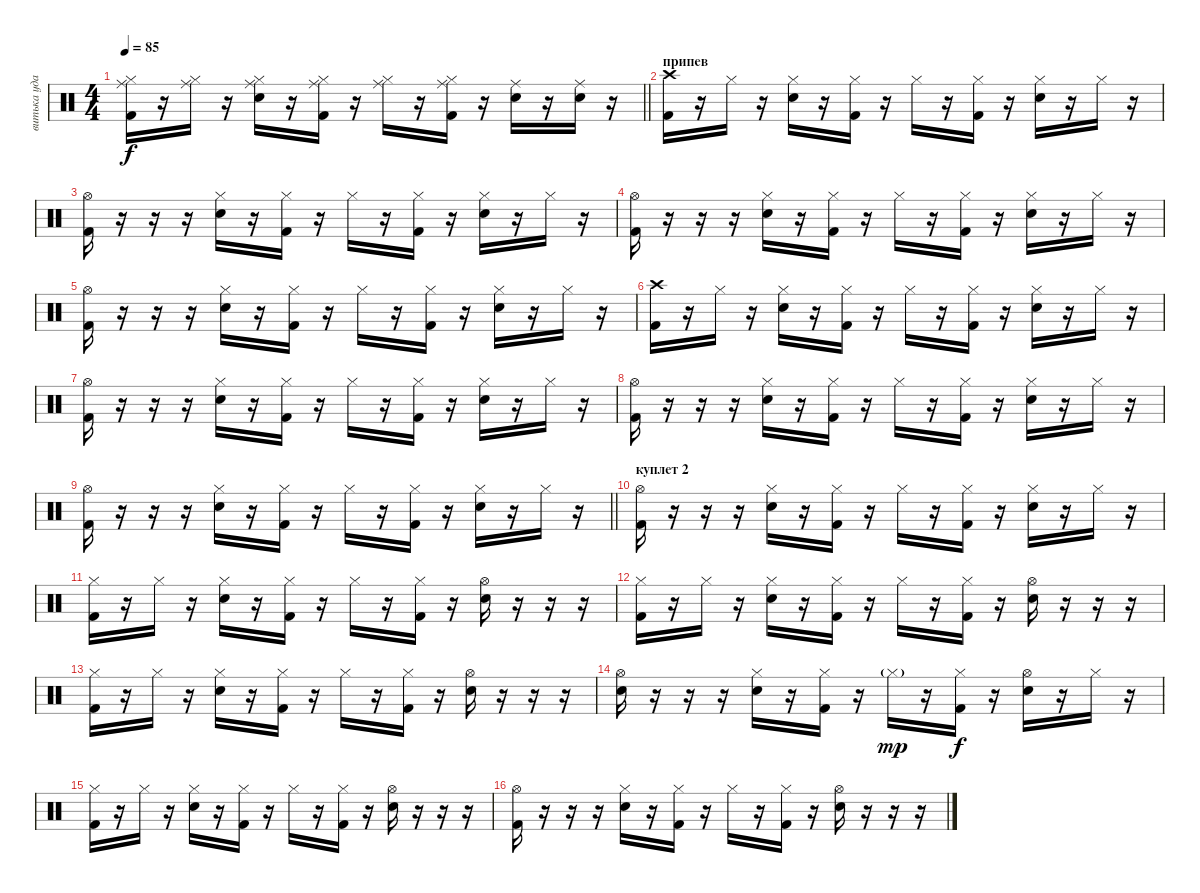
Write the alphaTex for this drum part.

\track ("витька ударные" "витька уда") {instrument percussion}
\staff {score}
\articulation defaults
\ts (4 4)
\tempo 85
\clef neutral
\barLineRight lightlight
\ks c
("Kick (hit) 2" "Ride (middle)" "Hi-Hat (closed)").16{dy f} r.16 ("Ride (middle)" "Hi-Hat (closed)").16 r.16 ("Snare (hit) 2" "Ride (middle)" "Hi-Hat (closed)").16 r.16 ("Kick (hit) 2" "Ride (middle)" "Hi-Hat (closed)").16 r.16 ("Ride (middle)" "Hi-Hat (closed)").16 r.16 ("Kick (hit) 2" "Ride (middle)" "Hi-Hat (closed)").16 r.16 ("Snare (hit) 2" "Ride (middle)").16 r.16 ("Snare (hit) 2" "Ride (middle)").16 r.16 |
\section ("" "припев")
("Kick (hit) 2" "Crash high (hit)").16 r.16 "Hi-Hat (closed)".16 r.16 ("Snare (hit) 2" "Hi-Hat (closed)").16 r.16 ("Kick (hit) 2" "Hi-Hat (closed)").16 r.16 "Hi-Hat (closed)".16 r.16 ("Kick (hit) 2" "Hi-Hat (closed)").16 r.16 ("Snare (hit) 2" "Hi-Hat (closed)").16 r.16 "Hi-Hat (closed)".16 r.16 |
("Kick (hit) 2" "Hi-Hat (open)").16 r.16 r.16 r.16 ("Snare (hit) 2" "Hi-Hat (closed)").16 r.16 ("Kick (hit) 2" "Hi-Hat (closed)").16 r.16 "Hi-Hat (closed)".16 r.16 ("Kick (hit) 2" "Hi-Hat (closed)").16 r.16 ("Snare (hit) 2" "Hi-Hat (closed)").16 r.16 "Hi-Hat (closed)".16 r.16 |
("Kick (hit) 2" "Hi-Hat (open)").16 r.16 r.16 r.16 ("Snare (hit) 2" "Hi-Hat (closed)").16 r.16 ("Kick (hit) 2" "Hi-Hat (closed)").16 r.16 "Hi-Hat (closed)".16 r.16 ("Kick (hit) 2" "Hi-Hat (closed)").16 r.16 ("Snare (hit) 2" "Hi-Hat (closed)").16 r.16 "Hi-Hat (closed)".16 r.16 |
("Kick (hit) 2" "Hi-Hat (open)").16 r.16 r.16 r.16 ("Snare (hit) 2" "Hi-Hat (closed)").16 r.16 ("Kick (hit) 2" "Hi-Hat (closed)").16 r.16 "Hi-Hat (closed)".16 r.16 ("Kick (hit) 2" "Hi-Hat (closed)").16 r.16 ("Snare (hit) 2" "Hi-Hat (closed)").16 r.16 "Hi-Hat (closed)".16 r.16 |
("Kick (hit) 2" "Crash high (hit)").16 r.16 "Hi-Hat (closed)".16 r.16 ("Snare (hit) 2" "Hi-Hat (closed)").16 r.16 ("Kick (hit) 2" "Hi-Hat (closed)").16 r.16 "Hi-Hat (closed)".16 r.16 ("Kick (hit) 2" "Hi-Hat (closed)").16 r.16 ("Snare (hit) 2" "Hi-Hat (closed)").16 r.16 "Hi-Hat (closed)".16 r.16 |
("Kick (hit) 2" "Hi-Hat (open)").16 r.16 r.16 r.16 ("Snare (hit) 2" "Hi-Hat (closed)").16 r.16 ("Kick (hit) 2" "Hi-Hat (closed)").16 r.16 "Hi-Hat (closed)".16 r.16 ("Kick (hit) 2" "Hi-Hat (closed)").16 r.16 ("Snare (hit) 2" "Hi-Hat (closed)").16 r.16 "Hi-Hat (closed)".16 r.16 |
("Kick (hit) 2" "Hi-Hat (open)").16 r.16 r.16 r.16 ("Snare (hit) 2" "Hi-Hat (closed)").16 r.16 ("Kick (hit) 2" "Hi-Hat (closed)").16 r.16 "Hi-Hat (closed)".16 r.16 ("Kick (hit) 2" "Hi-Hat (closed)").16 r.16 ("Snare (hit) 2" "Hi-Hat (closed)").16 r.16 "Hi-Hat (closed)".16 r.16 |
\barLineRight lightlight
("Kick (hit) 2" "Hi-Hat (open)").16 r.16 r.16 r.16 ("Snare (hit) 2" "Hi-Hat (closed)").16 r.16 ("Kick (hit) 2" "Hi-Hat (closed)").16 r.16 "Hi-Hat (closed)".16 r.16 ("Kick (hit) 2" "Hi-Hat (closed)").16 r.16 ("Snare (hit) 2" "Hi-Hat (closed)").16 r.16 "Hi-Hat (closed)".16 r.16 |
\section ("" "куплет 2")
("Kick (hit) 2" "Hi-Hat (open)").16 r.16 r.16 r.16 ("Snare (hit) 2" "Hi-Hat (closed)").16 r.16 ("Kick (hit) 2" "Hi-Hat (closed)").16 r.16 "Hi-Hat (closed)".16 r.16 ("Kick (hit) 2" "Hi-Hat (closed)").16 r.16 ("Snare (hit) 2" "Hi-Hat (closed)").16 r.16 "Hi-Hat (closed)".16 r.16 |
("Kick (hit) 2" "Hi-Hat (closed)").16 r.16 "Hi-Hat (closed)".16 r.16 ("Snare (hit) 2" "Hi-Hat (closed)").16 r.16 ("Kick (hit) 2" "Hi-Hat (closed)").16 r.16 "Hi-Hat (closed)".16 r.16 ("Kick (hit) 2" "Hi-Hat (closed)").16 r.16 ("Snare (hit) 2" "Hi-Hat (open)").16 r.16 r.16 r.16 |
("Kick (hit) 2" "Hi-Hat (closed)").16 r.16 "Hi-Hat (closed)".16 r.16 ("Snare (hit) 2" "Hi-Hat (closed)").16 r.16 ("Kick (hit) 2" "Hi-Hat (closed)").16 r.16 "Hi-Hat (closed)".16 r.16 ("Kick (hit) 2" "Hi-Hat (closed)").16 r.16 ("Snare (hit) 2" "Hi-Hat (open)").16 r.16 r.16 r.16 |
("Kick (hit) 2" "Hi-Hat (closed)").16 r.16 "Hi-Hat (closed)".16 r.16 ("Snare (hit) 2" "Hi-Hat (closed)").16 r.16 ("Kick (hit) 2" "Hi-Hat (closed)").16 r.16 "Hi-Hat (closed)".16 r.16 ("Kick (hit) 2" "Hi-Hat (closed)").16 r.16 ("Snare (hit) 2" "Hi-Hat (open)").16 r.16 r.16 r.16 |
("Snare (hit) 2" "Hi-Hat (open)").16 r.16 r.16 r.16 ("Snare (hit) 2" "Hi-Hat (closed)").16 r.16 ("Kick (hit) 2" "Hi-Hat (closed)").16 r.16 "Hi-Hat (closed)"{g}.16{dy mp} r.16 ("Kick (hit) 2" "Hi-Hat (closed)").16{dy f} r.16 ("Snare (hit) 2" "Hi-Hat (open)").16 r.16 "Hi-Hat (closed)".16 r.16 |
("Kick (hit) 2" "Hi-Hat (closed)").16 r.16 "Hi-Hat (closed)".16 r.16 ("Snare (hit) 2" "Hi-Hat (closed)").16 r.16 ("Kick (hit) 2" "Hi-Hat (closed)").16 r.16 "Hi-Hat (closed)".16 r.16 ("Kick (hit) 2" "Hi-Hat (closed)").16 r.16 ("Snare (hit) 2" "Hi-Hat (open)").16 r.16 r.16 r.16 |
("Kick (hit) 2" "Hi-Hat (open)").16 r.16 r.16 r.16 ("Snare (hit) 2" "Hi-Hat (closed)").16 r.16 ("Kick (hit) 2" "Hi-Hat (closed)").16 r.16 "Hi-Hat (closed)".16 r.16 ("Kick (hit) 2" "Hi-Hat (closed)").16 r.16 ("Snare (hit) 2" "Hi-Hat (open)").16 r.16 r.16 r.16
